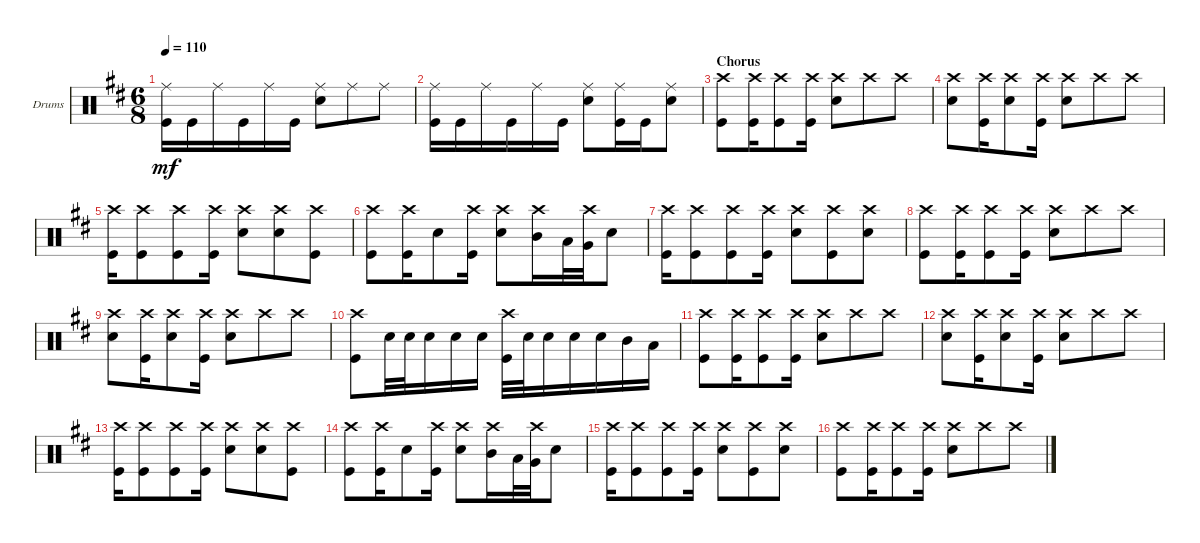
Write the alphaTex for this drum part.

\defaultSystemsLayout 4
\bracketExtendMode groupsimilarinstruments
\firstSystemTrackNameOrientation horizontal
\otherSystemsTrackNameOrientation horizontal
\track ("Drumkit" "Drums") {instrument percussion}
\staff {score}
\articulation defaults
\ts (6 8)
\tempo 110
\clef neutral
\ks d
("Kick (hit)" "Ride (middle)").16{dy mf} "Kick (hit)".16 "Ride (middle)".16 "Kick (hit)".16 "Ride (middle)".16 "Kick (hit)".16 ("Snare (hit) 2" "Ride (middle)").8 "Ride (middle)".8 "Ride (middle)".8 |
("Kick (hit)" "Ride (middle)").16 "Kick (hit)".16 "Ride (middle)".16 "Kick (hit)".16 "Ride (middle)".16 "Kick (hit)".16 ("Snare (hit) 2" "Ride (middle)").8 ("Kick (hit)" "Ride (middle)").16 "Kick (hit)".16 ("Snare (hit) 2" "Ride (middle)").8 |
\section ("" "Chorus")
("Kick (hit)" "Crash high (hit)").8 ("Kick (hit)" "Crash high (hit)").16 ("Kick (hit)" "Crash high (hit)").8 ("Kick (hit)" "Crash high (hit)").16 ("Snare (hit) 2" "Crash high (hit)").8 "Crash high (hit)".8 "Crash high (hit)".8 |
("Crash high (hit)" "Snare (hit) 2").8 ("Kick (hit)" "Crash high (hit)").16 ("Crash high (hit)" "Snare (hit) 2").8 ("Kick (hit)" "Crash high (hit)").16 ("Snare (hit) 2" "Crash high (hit)").8 "Crash high (hit)".8 "Crash high (hit)".8 |
("Crash high (hit)" "Kick (hit)").16 ("Kick (hit)" "Crash high (hit)").8 ("Kick (hit)" "Crash high (hit)").8 ("Kick (hit)" "Crash high (hit)").16 ("Snare (hit) 2" "Crash high (hit)").8 ("Crash high (hit)" "Snare (hit) 2").8 ("Crash high (hit)" "Kick (hit)").8 |
("Kick (hit)" "Crash high (hit)").8 ("Kick (hit)" "Crash high (hit)").16 "Snare (hit) 2".8 ("Kick (hit)" "Crash high (hit)").16 ("Snare (hit) 2" "Crash high (hit)").8 ("Mid Tom (hit)" "Crash high (hit)").16 "Low Tom (hit)".32 ("Very Low Tom (hit)" "Crash high (hit)").32 "Snare (hit) 2".8 |
("Kick (hit)" "Crash high (hit)").16 ("Kick (hit)" "Crash high (hit)").8 ("Kick (hit)" "Crash high (hit)").8 ("Kick (hit)" "Crash high (hit)").16 ("Snare (hit) 2" "Crash high (hit)").8 ("Kick (hit)" "Crash high (hit)").8 ("Snare (hit) 2" "Crash high (hit)").8 |
("Kick (hit)" "Crash high (hit)").8 ("Kick (hit)" "Crash high (hit)").16 ("Kick (hit)" "Crash high (hit)").8 ("Kick (hit)" "Crash high (hit)").16 ("Snare (hit) 2" "Crash high (hit)").8 "Crash high (hit)".8 "Crash high (hit)".8 |
("Crash high (hit)" "Snare (hit) 2").8 ("Kick (hit)" "Crash high (hit)").16 ("Crash high (hit)" "Snare (hit) 2").8 ("Kick (hit)" "Crash high (hit)").16 ("Snare (hit) 2" "Crash high (hit)").8 "Crash high (hit)".8 "Crash high (hit)".8 |
("Kick (hit)" "Crash high (hit)").8 "Snare (hit) 2".32 "Snare (hit) 2".32 "Snare (hit) 2".16 "Snare (hit) 2".16 "Snare (hit) 2".16 ("Kick (hit)" "Crash high (hit)").32 "Snare (hit) 2".32 "Snare (hit) 2".16 "Snare (hit) 2".16 "Snare (hit) 2".16 "Mid Tom (hit)".16 "Low Tom (hit)".16 |
("Kick (hit)" "Crash high (hit)").8 ("Kick (hit)" "Crash high (hit)").16 ("Kick (hit)" "Crash high (hit)").8 ("Kick (hit)" "Crash high (hit)").16 ("Snare (hit) 2" "Crash high (hit)").8 "Crash high (hit)".8 "Crash high (hit)".8 |
("Crash high (hit)" "Snare (hit) 2").8 ("Kick (hit)" "Crash high (hit)").16 ("Crash high (hit)" "Snare (hit) 2").8 ("Kick (hit)" "Crash high (hit)").16 ("Snare (hit) 2" "Crash high (hit)").8 "Crash high (hit)".8 "Crash high (hit)".8 |
("Kick (hit)" "Crash high (hit)").16 ("Kick (hit)" "Crash high (hit)").8 ("Kick (hit)" "Crash high (hit)").8 ("Kick (hit)" "Crash high (hit)").16 ("Snare (hit) 2" "Crash high (hit)").8 ("Crash high (hit)" "Snare (hit) 2").8 ("Crash high (hit)" "Kick (hit)").8 |
("Kick (hit)" "Crash high (hit)").8 ("Kick (hit)" "Crash high (hit)").16 "Snare (hit) 2".8 ("Kick (hit)" "Crash high (hit)").16 ("Snare (hit) 2" "Crash high (hit)").8 ("Mid Tom (hit)" "Crash high (hit)").16 "Low Tom (hit)".32 ("Very Low Tom (hit)" "Crash high (hit)").32 "Snare (hit) 2".8 |
("Kick (hit)" "Crash high (hit)").16 ("Kick (hit)" "Crash high (hit)").8 ("Kick (hit)" "Crash high (hit)").8 ("Kick (hit)" "Crash high (hit)").16 ("Snare (hit) 2" "Crash high (hit)").8 ("Kick (hit)" "Crash high (hit)").8 ("Snare (hit) 2" "Crash high (hit)").8 |
("Kick (hit)" "Crash high (hit)").8 ("Kick (hit)" "Crash high (hit)").16 ("Kick (hit)" "Crash high (hit)").8 ("Kick (hit)" "Crash high (hit)").16 ("Snare (hit) 2" "Crash high (hit)").8 "Crash high (hit)".8 "Crash high (hit)".8
